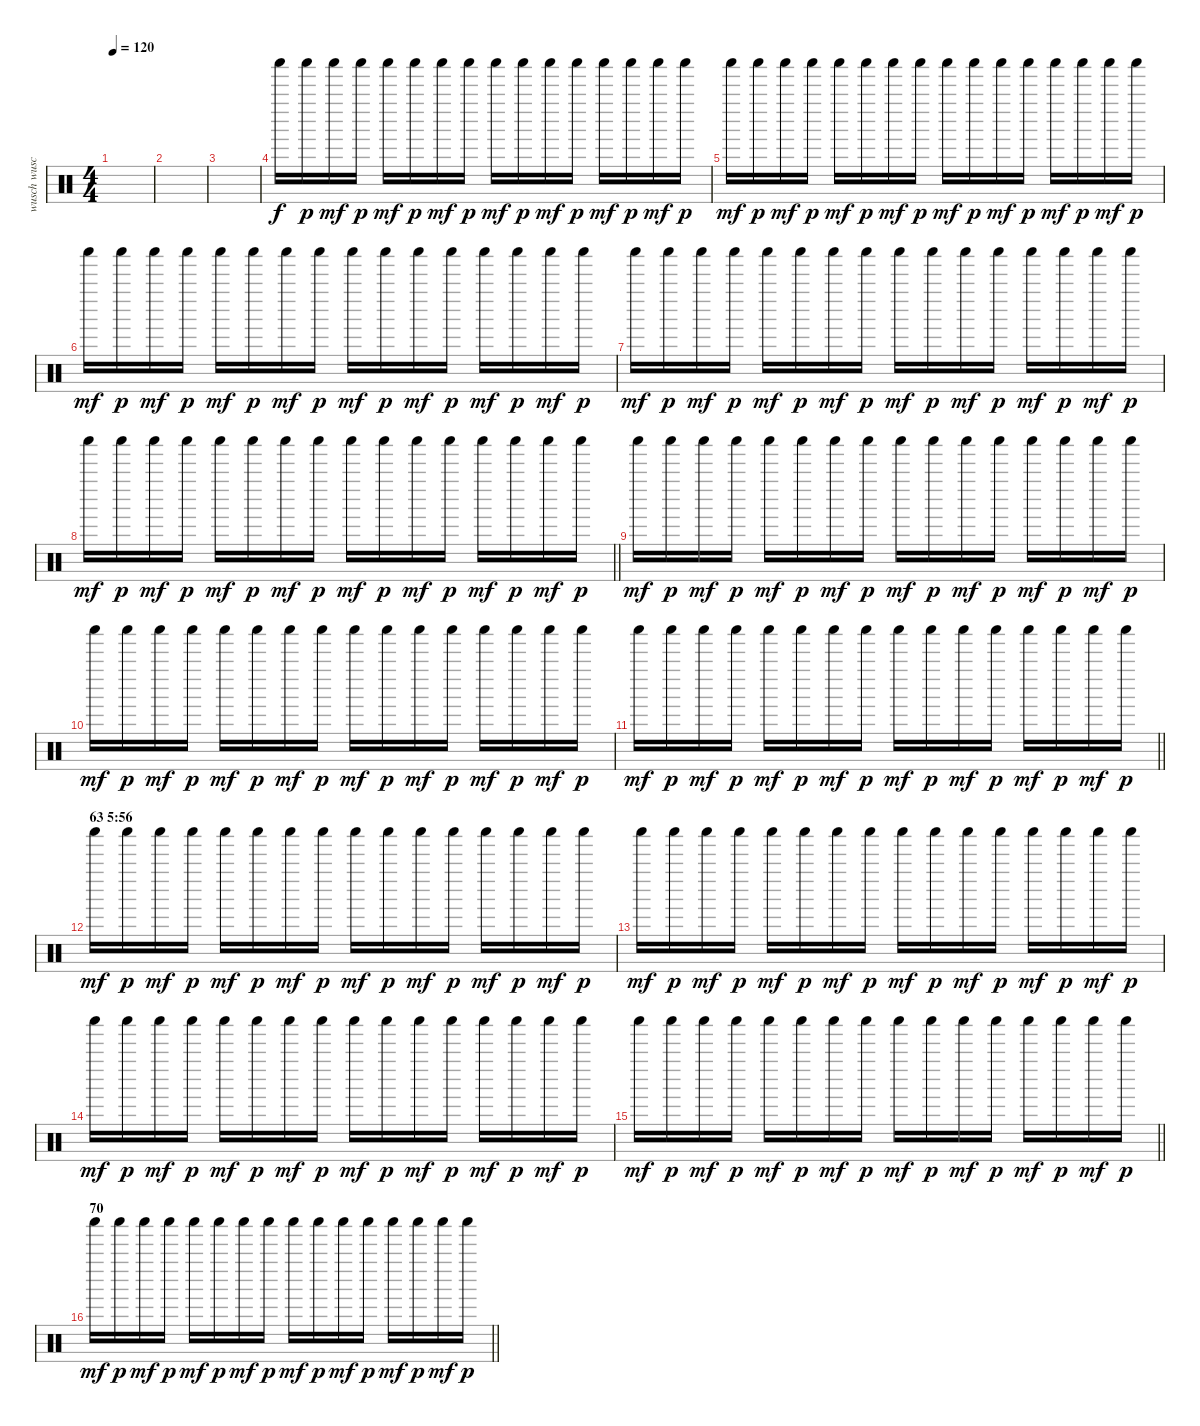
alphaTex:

\track ("wusch wusch" "wusch wusc") {instrument percussion}
\staff {score}
\articulation defaults
\ts (4 4)
\tempo 120
\clef neutral
\ks c
|
|
|
"Shaker (hit)".16 "Shaker (hit)".16{dy p} "Shaker (hit)".16{dy mf} "Shaker (hit)".16{dy p} "Shaker (hit)".16{dy mf} "Shaker (hit)".16{dy p} "Shaker (hit)".16{dy mf} "Shaker (hit)".16{dy p} "Shaker (hit)".16{dy mf} "Shaker (hit)".16{dy p} "Shaker (hit)".16{dy mf} "Shaker (hit)".16{dy p} "Shaker (hit)".16{dy mf} "Shaker (hit)".16{dy p} "Shaker (hit)".16{dy mf} "Shaker (hit)".16{dy p} |
"Shaker (hit)".16{dy mf} "Shaker (hit)".16{dy p} "Shaker (hit)".16{dy mf} "Shaker (hit)".16{dy p} "Shaker (hit)".16{dy mf} "Shaker (hit)".16{dy p} "Shaker (hit)".16{dy mf} "Shaker (hit)".16{dy p} "Shaker (hit)".16{dy mf} "Shaker (hit)".16{dy p} "Shaker (hit)".16{dy mf} "Shaker (hit)".16{dy p} "Shaker (hit)".16{dy mf} "Shaker (hit)".16{dy p} "Shaker (hit)".16{dy mf} "Shaker (hit)".16{dy p} |
"Shaker (hit)".16{dy mf} "Shaker (hit)".16{dy p} "Shaker (hit)".16{dy mf} "Shaker (hit)".16{dy p} "Shaker (hit)".16{dy mf} "Shaker (hit)".16{dy p} "Shaker (hit)".16{dy mf} "Shaker (hit)".16{dy p} "Shaker (hit)".16{dy mf} "Shaker (hit)".16{dy p} "Shaker (hit)".16{dy mf} "Shaker (hit)".16{dy p} "Shaker (hit)".16{dy mf} "Shaker (hit)".16{dy p} "Shaker (hit)".16{dy mf} "Shaker (hit)".16{dy p} |
"Shaker (hit)".16{dy mf} "Shaker (hit)".16{dy p} "Shaker (hit)".16{dy mf} "Shaker (hit)".16{dy p} "Shaker (hit)".16{dy mf} "Shaker (hit)".16{dy p} "Shaker (hit)".16{dy mf} "Shaker (hit)".16{dy p} "Shaker (hit)".16{dy mf} "Shaker (hit)".16{dy p} "Shaker (hit)".16{dy mf} "Shaker (hit)".16{dy p} "Shaker (hit)".16{dy mf} "Shaker (hit)".16{dy p} "Shaker (hit)".16{dy mf} "Shaker (hit)".16{dy p} |
\barLineRight lightlight "Shaker (hit)".16{dy mf} "Shaker (hit)".16{dy p} "Shaker (hit)".16{dy mf} "Shaker (hit)".16{dy p} "Shaker (hit)".16{dy mf} "Shaker (hit)".16{dy p} "Shaker (hit)".16{dy mf} "Shaker (hit)".16{dy p} "Shaker (hit)".16{dy mf} "Shaker (hit)".16{dy p} "Shaker (hit)".16{dy mf} "Shaker (hit)".16{dy p} "Shaker (hit)".16{dy mf} "Shaker (hit)".16{dy p} "Shaker (hit)".16{dy mf} "Shaker (hit)".16{dy p}
|
"Shaker (hit)".16{dy mf} "Shaker (hit)".16{dy p} "Shaker (hit)".16{dy mf} "Shaker (hit)".16{dy p} "Shaker (hit)".16{dy mf} "Shaker (hit)".16{dy p} "Shaker (hit)".16{dy mf} "Shaker (hit)".16{dy p} "Shaker (hit)".16{dy mf} "Shaker (hit)".16{dy p} "Shaker (hit)".16{dy mf} "Shaker (hit)".16{dy p} "Shaker (hit)".16{dy mf} "Shaker (hit)".16{dy p} "Shaker (hit)".16{dy mf} "Shaker (hit)".16{dy p} |
"Shaker (hit)".16{dy mf} "Shaker (hit)".16{dy p} "Shaker (hit)".16{dy mf} "Shaker (hit)".16{dy p} "Shaker (hit)".16{dy mf} "Shaker (hit)".16{dy p} "Shaker (hit)".16{dy mf} "Shaker (hit)".16{dy p} "Shaker (hit)".16{dy mf} "Shaker (hit)".16{dy p} "Shaker (hit)".16{dy mf} "Shaker (hit)".16{dy p} "Shaker (hit)".16{dy mf} "Shaker (hit)".16{dy p} "Shaker (hit)".16{dy mf} "Shaker (hit)".16{dy p} |
\barLineRight lightlight "Shaker (hit)".16{dy mf} "Shaker (hit)".16{dy p} "Shaker (hit)".16{dy mf} "Shaker (hit)".16{dy p} "Shaker (hit)".16{dy mf} "Shaker (hit)".16{dy p} "Shaker (hit)".16{dy mf} "Shaker (hit)".16{dy p} "Shaker (hit)".16{dy mf} "Shaker (hit)".16{dy p} "Shaker (hit)".16{dy mf} "Shaker (hit)".16{dy p} "Shaker (hit)".16{dy mf} "Shaker (hit)".16{dy p} "Shaker (hit)".16{dy mf} "Shaker (hit)".16{dy p}
|
\section ("" "63 5:56")
"Shaker (hit)".16{dy mf} "Shaker (hit)".16{dy p} "Shaker (hit)".16{dy mf} "Shaker (hit)".16{dy p} "Shaker (hit)".16{dy mf} "Shaker (hit)".16{dy p} "Shaker (hit)".16{dy mf} "Shaker (hit)".16{dy p} "Shaker (hit)".16{dy mf} "Shaker (hit)".16{dy p} "Shaker (hit)".16{dy mf} "Shaker (hit)".16{dy p} "Shaker (hit)".16{dy mf} "Shaker (hit)".16{dy p} "Shaker (hit)".16{dy mf} "Shaker (hit)".16{dy p} |
"Shaker (hit)".16{dy mf} "Shaker (hit)".16{dy p} "Shaker (hit)".16{dy mf} "Shaker (hit)".16{dy p} "Shaker (hit)".16{dy mf} "Shaker (hit)".16{dy p} "Shaker (hit)".16{dy mf} "Shaker (hit)".16{dy p} "Shaker (hit)".16{dy mf} "Shaker (hit)".16{dy p} "Shaker (hit)".16{dy mf} "Shaker (hit)".16{dy p} "Shaker (hit)".16{dy mf} "Shaker (hit)".16{dy p} "Shaker (hit)".16{dy mf} "Shaker (hit)".16{dy p} |
"Shaker (hit)".16{dy mf} "Shaker (hit)".16{dy p} "Shaker (hit)".16{dy mf} "Shaker (hit)".16{dy p} "Shaker (hit)".16{dy mf} "Shaker (hit)".16{dy p} "Shaker (hit)".16{dy mf} "Shaker (hit)".16{dy p} "Shaker (hit)".16{dy mf} "Shaker (hit)".16{dy p} "Shaker (hit)".16{dy mf} "Shaker (hit)".16{dy p} "Shaker (hit)".16{dy mf} "Shaker (hit)".16{dy p} "Shaker (hit)".16{dy mf} "Shaker (hit)".16{dy p} |
\barLineRight lightlight "Shaker (hit)".16{dy mf} "Shaker (hit)".16{dy p} "Shaker (hit)".16{dy mf} "Shaker (hit)".16{dy p} "Shaker (hit)".16{dy mf} "Shaker (hit)".16{dy p} "Shaker (hit)".16{dy mf} "Shaker (hit)".16{dy p} "Shaker (hit)".16{dy mf} "Shaker (hit)".16{dy p} "Shaker (hit)".16{dy mf} "Shaker (hit)".16{dy p} "Shaker (hit)".16{dy mf} "Shaker (hit)".16{dy p} "Shaker (hit)".16{dy mf} "Shaker (hit)".16{dy p}
|
\section ("" "70")
\barLineRight lightlight "Shaker (hit)".16{dy mf} "Shaker (hit)".16{dy p} "Shaker (hit)".16{dy mf} "Shaker (hit)".16{dy p} "Shaker (hit)".16{dy mf} "Shaker (hit)".16{dy p} "Shaker (hit)".16{dy mf} "Shaker (hit)".16{dy p} "Shaker (hit)".16{dy mf} "Shaker (hit)".16{dy p} "Shaker (hit)".16{dy mf} "Shaker (hit)".16{dy p} "Shaker (hit)".16{dy mf} "Shaker (hit)".16{dy p} "Shaker (hit)".16{dy mf} "Shaker (hit)".16{dy p}
